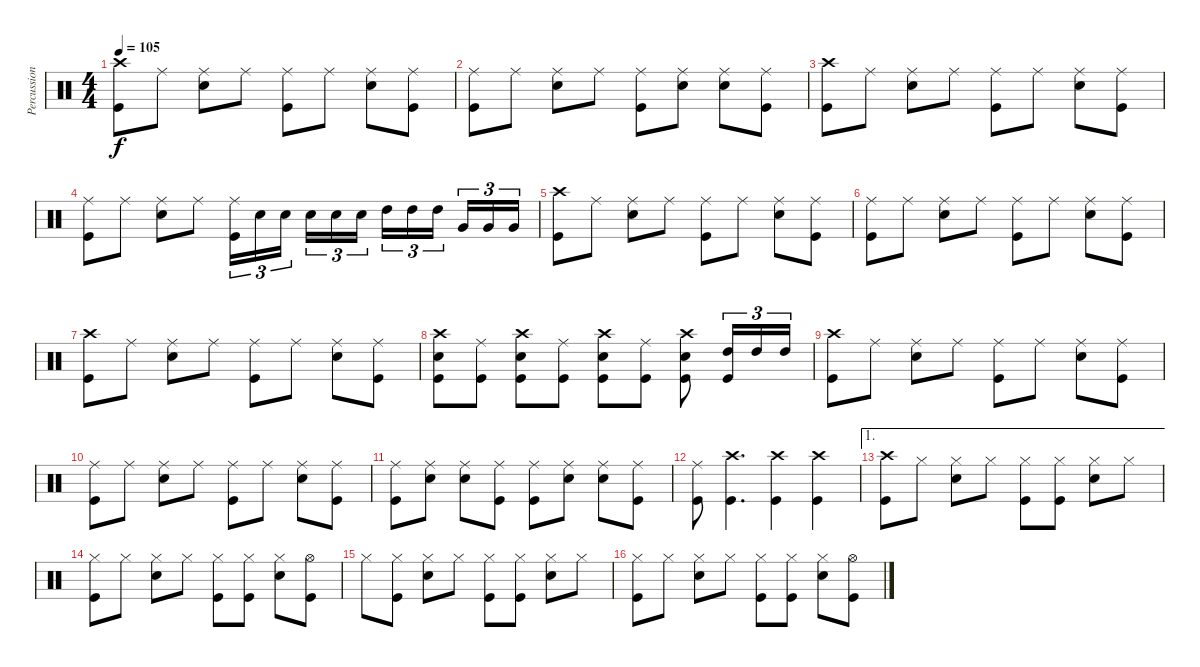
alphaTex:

\track ("Percussions" "Percussion") {instrument percussion}
\staff {score}
\articulation defaults
\ts (4 4)
\tempo 105
\clef neutral
\ks c
("Crash high (hit)" "Kick (hit)").8{dy f} "Ride (middle)".8 ("Snare (hit) 2" "Ride (middle)").8 "Ride (middle)".8 ("Kick (hit)" "Ride (middle)").8 "Ride (middle)".8 ("Snare (hit) 2" "Ride (middle)").8 ("Ride (middle)" "Kick (hit)").8 |
("Kick (hit)" "Ride (middle)").8 "Ride (middle)".8 ("Snare (hit) 2" "Ride (middle)").8 "Ride (middle)".8 ("Kick (hit)" "Ride (middle)").8 ("Snare (hit) 2" "Ride (middle)").8 ("Snare (hit) 2" "Ride (middle)").8 ("Kick (hit)" "Ride (middle)").8 |
("Crash high (hit)" "Kick (hit)").8 "Ride (middle)".8 ("Snare (hit) 2" "Ride (middle)").8 "Ride (middle)".8 ("Kick (hit)" "Ride (middle)").8 "Ride (middle)".8 ("Snare (hit) 2" "Ride (middle)").8 ("Ride (middle)" "Kick (hit)").8 |
("Kick (hit)" "Ride (middle)").8 "Ride (middle)".8 ("Snare (hit) 2" "Ride (middle)").8 "Ride (middle)".8 ("Ride (middle)" "Kick (hit)").16{tu (3 2)} "Snare (hit) 2".16{tu (3 2)} "Snare (hit) 2".16{tu (3 2) beam splitsecondary} "Snare (hit) 2".16{tu (3 2)} "Snare (hit) 2".16{tu (3 2)} "Snare (hit) 2".16{tu (3 2)} "High Tom (hit)".16{tu (3 2)} "High Tom (hit)".16{tu (3 2)} "High Tom (hit)".16{tu (3 2) beam splitsecondary} "Very Low Tom (hit)".16{tu (3 2)} "Very Low Tom (hit)".16{tu (3 2)} "Very Low Tom (hit)".16{tu (3 2)} |
("Crash high (hit)" "Kick (hit)").8 "Ride (middle)".8 ("Snare (hit) 2" "Ride (middle)").8 "Ride (middle)".8 ("Kick (hit)" "Ride (middle)").8 "Ride (middle)".8 ("Snare (hit) 2" "Ride (middle)").8 ("Ride (middle)" "Kick (hit)").8 |
("Kick (hit)" "Ride (middle)").8 "Ride (middle)".8 ("Snare (hit) 2" "Ride (middle)").8 "Ride (middle)".8 ("Kick (hit)" "Ride (middle)").8 "Ride (middle)".8 ("Snare (hit) 2" "Ride (middle)").8 ("Kick (hit)" "Ride (middle)").8 |
("Crash high (hit)" "Kick (hit)").8 "Ride (middle)".8 ("Snare (hit) 2" "Ride (middle)").8 "Ride (middle)".8 ("Kick (hit)" "Ride (middle)").8 "Ride (middle)".8 ("Snare (hit) 2" "Ride (middle)").8 ("Ride (middle)" "Kick (hit)").8 |
("Kick (hit)" "Crash high (hit)" "Snare (hit) 2").8 ("Ride (middle)" "Kick (hit)").8 ("Snare (hit) 2" "Crash high (hit)" "Kick (hit)").8 ("Ride (middle)" "Kick (hit)").8 ("Kick (hit)" "Crash high (hit)" "Snare (hit) 2").8 ("Kick (hit)" "Ride (middle)").8 ("Snare (hit) 2" "Crash high (hit)" "Kick (hit)").8 ("Kick (hit)" "High Tom (hit)").16{tu (3 2)} "High Tom (hit)".16{tu (3 2)} "High Tom (hit)".16{tu (3 2)} |
("Crash high (hit)" "Kick (hit)").8 "Ride (middle)".8 ("Snare (hit) 2" "Ride (middle)").8 "Ride (middle)".8 ("Kick (hit)" "Ride (middle)").8 "Ride (middle)".8 ("Snare (hit) 2" "Ride (middle)").8 ("Ride (middle)" "Kick (hit)").8 |
("Kick (hit)" "Ride (middle)").8 "Ride (middle)".8 ("Snare (hit) 2" "Ride (middle)").8 "Ride (middle)".8 ("Kick (hit)" "Ride (middle)").8 "Ride (middle)".8 ("Snare (hit) 2" "Ride (middle)").8 ("Kick (hit)" "Ride (middle)").8 |
("Kick (hit)" "Ride (middle)").8 ("Snare (hit) 2" "Ride (middle)").8 ("Snare (hit) 2" "Ride (middle)").8 ("Kick (hit)" "Ride (middle)").8 ("Kick (hit)" "Ride (middle)").8 ("Snare (hit) 2" "Ride (middle)").8 ("Snare (hit) 2" "Ride (middle)").8 ("Kick (hit)" "Ride (middle)").8 |
("Kick (hit)" "Ride (middle)").8 ("Kick (hit)" "Crash high (hit)").4{d} ("Kick (hit)" "Crash high (hit)").4 ("Kick (hit)" "Crash high (hit)").4 |
\ae 1
("Kick (hit)" "Crash high (hit)").8 "Hi-Hat (closed)".8 ("Snare (hit) 2" "Hi-Hat (closed)").8 "Hi-Hat (closed)".8 ("Kick (hit)" "Hi-Hat (closed)").8 ("Kick (hit)" "Hi-Hat (closed)").8 ("Snare (hit) 2" "Hi-Hat (closed)").8 "Hi-Hat (closed)".8 |
("Kick (hit)" "Hi-Hat (closed)").8 "Hi-Hat (closed)".8 ("Snare (hit) 2" "Hi-Hat (closed)").8 "Hi-Hat (closed)".8 ("Kick (hit)" "Hi-Hat (closed)").8 ("Kick (hit)" "Hi-Hat (closed)").8 ("Snare (hit) 2" "Hi-Hat (closed)").8 ("Kick (hit)" "Hi-Hat (open)").8 |
"Hi-Hat (closed)".8 ("Hi-Hat (closed)" "Kick (hit)").8 ("Snare (hit) 2" "Hi-Hat (closed)").8 "Hi-Hat (closed)".8 ("Kick (hit)" "Hi-Hat (closed)").8 ("Kick (hit)" "Hi-Hat (closed)").8 ("Snare (hit) 2" "Hi-Hat (closed)").8 "Hi-Hat (closed)".8 |
("Kick (hit)" "Hi-Hat (closed)").8 "Hi-Hat (closed)".8 ("Snare (hit) 2" "Hi-Hat (closed)").8 "Hi-Hat (closed)".8 ("Kick (hit)" "Hi-Hat (closed)").8 ("Kick (hit)" "Hi-Hat (closed)").8 ("Snare (hit) 2" "Hi-Hat (closed)").8 ("Kick (hit)" "Hi-Hat (open)").8
